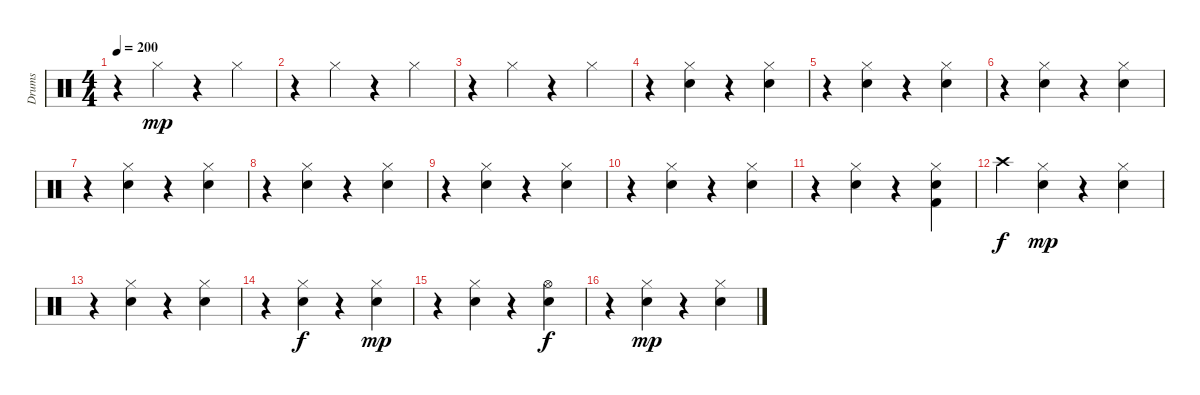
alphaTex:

\track ("Drums" "Drums") {instrument percussion}
\staff {score}
\articulation defaults
\ts (4 4)
\tempo 200
\clef neutral
\ks c
r.4{dy mp} "Hi-Hat (closed)".4 r.4 "Hi-Hat (closed)".4 |
r.4 "Hi-Hat (closed)".4 r.4 "Hi-Hat (closed)".4 |
r.4 "Hi-Hat (closed)".4 r.4 "Hi-Hat (closed)".4 |
r.4 ("Hi-Hat (closed)" "Snare (hit) 2").4 r.4 ("Hi-Hat (closed)" "Snare (hit) 2").4 |
r.4 ("Hi-Hat (closed)" "Snare (hit) 2").4 r.4 ("Hi-Hat (closed)" "Snare (hit) 2").4 |
r.4 ("Hi-Hat (closed)" "Snare (hit) 2").4 r.4 ("Hi-Hat (closed)" "Snare (hit) 2").4 |
r.4 ("Hi-Hat (closed)" "Snare (hit) 2").4 r.4 ("Hi-Hat (closed)" "Snare (hit) 2").4 |
r.4 ("Hi-Hat (closed)" "Snare (hit) 2").4 r.4 ("Hi-Hat (closed)" "Snare (hit) 2").4 |
r.4 ("Hi-Hat (closed)" "Snare (hit) 2").4 r.4 ("Hi-Hat (closed)" "Snare (hit) 2").4 |
r.4 ("Hi-Hat (closed)" "Snare (hit) 2").4 r.4 ("Hi-Hat (closed)" "Snare (hit) 2").4 |
r.4 ("Hi-Hat (closed)" "Snare (hit) 2").4 r.4 ("Hi-Hat (closed)" "Snare (hit) 2" "Kick (hit) 2").4 |
"Crash high (hit)".4{dy f} ("Hi-Hat (closed)" "Snare (hit) 2").4{dy mp} r.4 ("Hi-Hat (closed)" "Snare (hit) 2").4 |
r.4 ("Hi-Hat (closed)" "Snare (hit) 2").4 r.4 ("Hi-Hat (closed)" "Snare (hit) 2").4 |
r.4 ("Hi-Hat (closed)" "Snare (hit) 2").4{dy f} r.4 ("Hi-Hat (closed)" "Snare (hit) 2").4{dy mp} |
r.4 ("Hi-Hat (closed)" "Snare (hit) 2").4 r.4 ("Hi-Hat (open)" "Snare (hit) 2").4{dy f} |
r.4 ("Hi-Hat (closed)" "Snare (hit) 2").4{dy mp} r.4 ("Hi-Hat (closed)" "Snare (hit) 2").4
